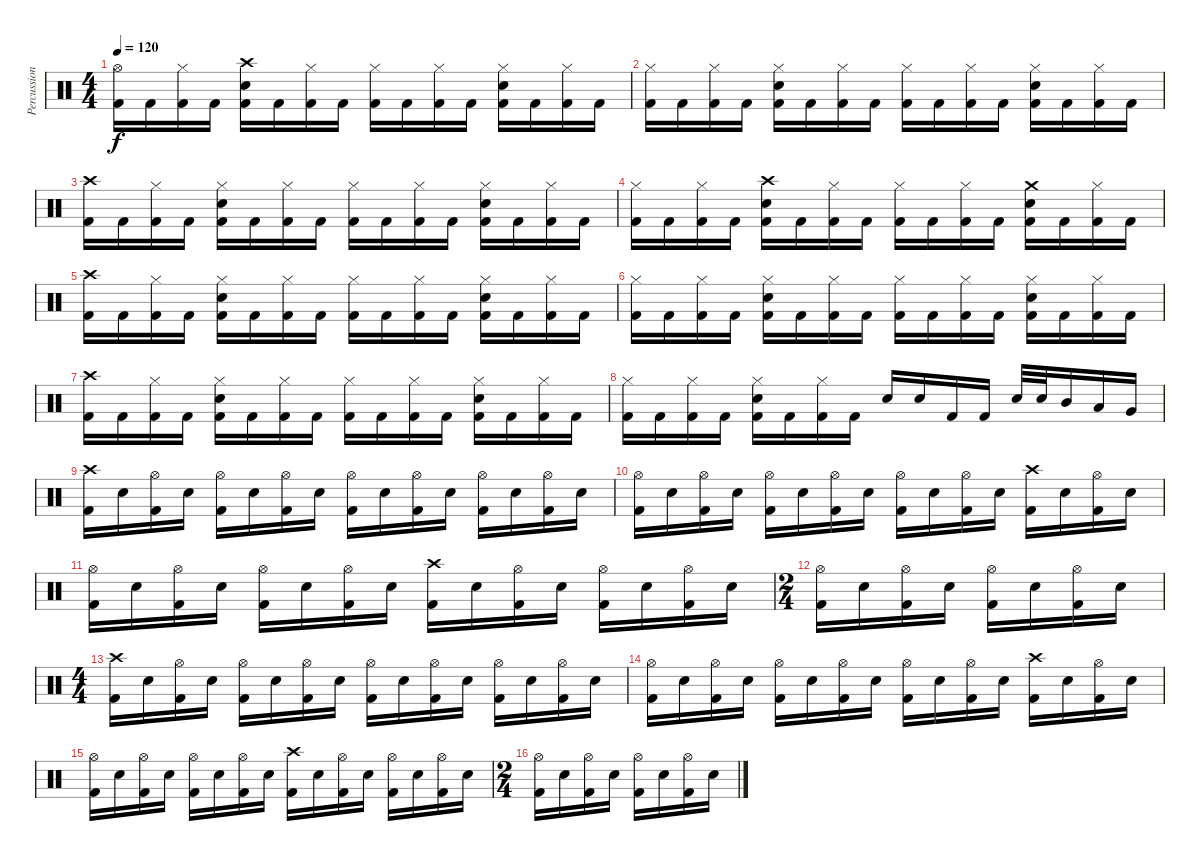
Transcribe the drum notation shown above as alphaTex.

\track ("Percussion" "Percussion") {instrument percussion}
\staff {score}
\articulation defaults
\ts (4 4)
\tempo 120
\clef neutral
\ks c
("Hi-Hat (open)" "Kick (hit) 2").16{dy f} "Kick (hit) 2".16 ("Hi-Hat (closed)" "Kick (hit) 2").16 "Kick (hit) 2".16 ("Crash high (hit)" "Snare (hit) 2" "Kick (hit) 2").16 "Kick (hit) 2".16 ("Hi-Hat (closed)" "Kick (hit) 2").16 "Kick (hit) 2".16 ("Hi-Hat (closed)" "Kick (hit) 2").16 "Kick (hit) 2".16 ("Hi-Hat (closed)" "Kick (hit) 2").16 "Kick (hit) 2".16 ("Hi-Hat (closed)" "Snare (hit) 2" "Kick (hit) 2").16 "Kick (hit) 2".16 ("Hi-Hat (closed)" "Kick (hit) 2").16 "Kick (hit) 2".16 |
("Hi-Hat (closed)" "Kick (hit) 2").16 "Kick (hit) 2".16 ("Hi-Hat (closed)" "Kick (hit) 2").16 "Kick (hit) 2".16 ("Hi-Hat (closed)" "Snare (hit) 2" "Kick (hit) 2").16 "Kick (hit) 2".16 ("Hi-Hat (closed)" "Kick (hit) 2").16 "Kick (hit) 2".16 ("Hi-Hat (closed)" "Kick (hit) 2").16 "Kick (hit) 2".16 ("Hi-Hat (closed)" "Kick (hit) 2").16 "Kick (hit) 2".16 ("Hi-Hat (closed)" "Snare (hit) 2" "Kick (hit) 2").16 "Kick (hit) 2".16 ("Hi-Hat (closed)" "Kick (hit) 2").16 "Kick (hit) 2".16 |
("Crash high (hit)" "Kick (hit) 2").16 "Kick (hit) 2".16 ("Hi-Hat (closed)" "Kick (hit) 2").16 "Kick (hit) 2".16 ("Hi-Hat (closed)" "Snare (hit) 2" "Kick (hit) 2").16 "Kick (hit) 2".16 ("Hi-Hat (closed)" "Kick (hit) 2").16 "Kick (hit) 2".16 ("Hi-Hat (closed)" "Kick (hit) 2").16 "Kick (hit) 2".16 ("Hi-Hat (closed)" "Kick (hit) 2").16 "Kick (hit) 2".16 ("Hi-Hat (closed)" "Snare (hit) 2" "Kick (hit) 2").16 "Kick (hit) 2".16 ("Hi-Hat (closed)" "Kick (hit) 2").16 "Kick (hit) 2".16 |
("Hi-Hat (closed)" "Kick (hit) 2").16 "Kick (hit) 2".16 ("Hi-Hat (closed)" "Kick (hit) 2").16 "Kick (hit) 2".16 ("Crash high (hit)" "Snare (hit) 2" "Kick (hit) 2").16 "Kick (hit) 2".16 ("Hi-Hat (closed)" "Kick (hit) 2").16 "Kick (hit) 2".16 ("Hi-Hat (closed)" "Kick (hit) 2").16 "Kick (hit) 2".16 ("Hi-Hat (closed)" "Kick (hit) 2").16 "Kick (hit) 2".16 ("Crash medium (hit)" "Snare (hit) 2" "Kick (hit) 2").16 "Kick (hit) 2".16 ("Hi-Hat (closed)" "Kick (hit) 2").16 "Kick (hit) 2".16 |
("Crash high (hit)" "Kick (hit) 2").16 "Kick (hit) 2".16 ("Hi-Hat (closed)" "Kick (hit) 2").16 "Kick (hit) 2".16 ("Hi-Hat (closed)" "Snare (hit) 2" "Kick (hit) 2").16 "Kick (hit) 2".16 ("Hi-Hat (closed)" "Kick (hit) 2").16 "Kick (hit) 2".16 ("Hi-Hat (closed)" "Kick (hit) 2").16 "Kick (hit) 2".16 ("Hi-Hat (closed)" "Kick (hit) 2").16 "Kick (hit) 2".16 ("Hi-Hat (closed)" "Snare (hit) 2" "Kick (hit) 2").16 "Kick (hit) 2".16 ("Hi-Hat (closed)" "Kick (hit) 2").16 "Kick (hit) 2".16 |
("Hi-Hat (closed)" "Kick (hit) 2").16 "Kick (hit) 2".16 ("Hi-Hat (closed)" "Kick (hit) 2").16 "Kick (hit) 2".16 ("Hi-Hat (closed)" "Snare (hit) 2" "Kick (hit) 2").16 "Kick (hit) 2".16 ("Hi-Hat (closed)" "Kick (hit) 2").16 "Kick (hit) 2".16 ("Hi-Hat (closed)" "Kick (hit) 2").16 "Kick (hit) 2".16 ("Hi-Hat (closed)" "Kick (hit) 2").16 "Kick (hit) 2".16 ("Hi-Hat (closed)" "Snare (hit) 2" "Kick (hit) 2").16 "Kick (hit) 2".16 ("Hi-Hat (closed)" "Kick (hit) 2").16 "Kick (hit) 2".16 |
("Crash high (hit)" "Kick (hit) 2").16 "Kick (hit) 2".16 ("Hi-Hat (closed)" "Kick (hit) 2").16 "Kick (hit) 2".16 ("Hi-Hat (closed)" "Snare (hit) 2" "Kick (hit) 2").16 "Kick (hit) 2".16 ("Hi-Hat (closed)" "Kick (hit) 2").16 "Kick (hit) 2".16 ("Hi-Hat (closed)" "Kick (hit) 2").16 "Kick (hit) 2".16 ("Hi-Hat (closed)" "Kick (hit) 2").16 "Kick (hit) 2".16 ("Hi-Hat (closed)" "Snare (hit) 2" "Kick (hit) 2").16 "Kick (hit) 2".16 ("Hi-Hat (closed)" "Kick (hit) 2").16 "Kick (hit) 2".16 |
("Hi-Hat (closed)" "Kick (hit) 2").16 "Kick (hit) 2".16 ("Hi-Hat (closed)" "Kick (hit) 2").16 "Kick (hit) 2".16 ("Hi-Hat (closed)" "Snare (hit) 2" "Kick (hit) 2").16 "Kick (hit) 2".16 ("Hi-Hat (closed)" "Kick (hit) 2").16 "Kick (hit) 2".16 "Snare (hit) 2".16 "Snare (hit) 2".16 "Kick (hit) 2".16 "Kick (hit) 2".16 "Snare (hit) 2".32 "Snare (hit) 2".32 "Mid Tom (hit)".16 "Low Tom (hit)".16 "Very Low Tom (hit)".16 |
("Crash high (hit)" "Kick (hit) 2").16 "Snare (hit) 2".16 ("Hi-Hat (open)" "Kick (hit) 2").16 "Snare (hit) 2".16 ("Hi-Hat (open)" "Kick (hit) 2").16 "Snare (hit) 2".16 ("Hi-Hat (open)" "Kick (hit) 2").16 "Snare (hit) 2".16 ("Hi-Hat (open)" "Kick (hit) 2").16 "Snare (hit) 2".16 ("Hi-Hat (open)" "Kick (hit) 2").16 "Snare (hit) 2".16 ("Hi-Hat (open)" "Kick (hit) 2").16 "Snare (hit) 2".16 ("Hi-Hat (open)" "Kick (hit) 2").16 "Snare (hit) 2".16 |
("Hi-Hat (open)" "Kick (hit) 2").16 "Snare (hit) 2".16 ("Hi-Hat (open)" "Kick (hit) 2").16 "Snare (hit) 2".16 ("Hi-Hat (open)" "Kick (hit) 2").16 "Snare (hit) 2".16 ("Hi-Hat (open)" "Kick (hit) 2").16 "Snare (hit) 2".16 ("Hi-Hat (open)" "Kick (hit) 2").16 "Snare (hit) 2".16 ("Hi-Hat (open)" "Kick (hit) 2").16 "Snare (hit) 2".16 ("Crash high (hit)" "Kick (hit) 2").16 "Snare (hit) 2".16 ("Hi-Hat (open)" "Kick (hit) 2").16 "Snare (hit) 2".16 |
("Hi-Hat (open)" "Kick (hit) 2").16 "Snare (hit) 2".16 ("Hi-Hat (open)" "Kick (hit) 2").16 "Snare (hit) 2".16 ("Hi-Hat (open)" "Kick (hit) 2").16 "Snare (hit) 2".16 ("Hi-Hat (open)" "Kick (hit) 2").16 "Snare (hit) 2".16 ("Crash high (hit)" "Kick (hit) 2").16 "Snare (hit) 2".16 ("Hi-Hat (open)" "Kick (hit) 2").16 "Snare (hit) 2".16 ("Hi-Hat (open)" "Kick (hit) 2").16 "Snare (hit) 2".16 ("Hi-Hat (open)" "Kick (hit) 2").16 "Snare (hit) 2".16 |
\ts (2 4)
("Hi-Hat (open)" "Kick (hit) 2").16 "Snare (hit) 2".16 ("Hi-Hat (open)" "Kick (hit) 2").16 "Snare (hit) 2".16 ("Hi-Hat (open)" "Kick (hit) 2").16 "Snare (hit) 2".16 ("Hi-Hat (open)" "Kick (hit) 2").16 "Snare (hit) 2".16 |
\ts (4 4)
("Crash high (hit)" "Kick (hit) 2").16 "Snare (hit) 2".16 ("Hi-Hat (open)" "Kick (hit) 2").16 "Snare (hit) 2".16 ("Hi-Hat (open)" "Kick (hit) 2").16 "Snare (hit) 2".16 ("Hi-Hat (open)" "Kick (hit) 2").16 "Snare (hit) 2".16 ("Hi-Hat (open)" "Kick (hit) 2").16 "Snare (hit) 2".16 ("Hi-Hat (open)" "Kick (hit) 2").16 "Snare (hit) 2".16 ("Hi-Hat (open)" "Kick (hit) 2").16 "Snare (hit) 2".16 ("Hi-Hat (open)" "Kick (hit) 2").16 "Snare (hit) 2".16 |
("Hi-Hat (open)" "Kick (hit) 2").16 "Snare (hit) 2".16 ("Hi-Hat (open)" "Kick (hit) 2").16 "Snare (hit) 2".16 ("Hi-Hat (open)" "Kick (hit) 2").16 "Snare (hit) 2".16 ("Hi-Hat (open)" "Kick (hit) 2").16 "Snare (hit) 2".16 ("Hi-Hat (open)" "Kick (hit) 2").16 "Snare (hit) 2".16 ("Hi-Hat (open)" "Kick (hit) 2").16 "Snare (hit) 2".16 ("Crash high (hit)" "Kick (hit) 2").16 "Snare (hit) 2".16 ("Hi-Hat (open)" "Kick (hit) 2").16 "Snare (hit) 2".16 |
("Hi-Hat (open)" "Kick (hit) 2").16 "Snare (hit) 2".16 ("Hi-Hat (open)" "Kick (hit) 2").16 "Snare (hit) 2".16 ("Hi-Hat (open)" "Kick (hit) 2").16 "Snare (hit) 2".16 ("Hi-Hat (open)" "Kick (hit) 2").16 "Snare (hit) 2".16 ("Crash high (hit)" "Kick (hit) 2").16 "Snare (hit) 2".16 ("Hi-Hat (open)" "Kick (hit) 2").16 "Snare (hit) 2".16 ("Hi-Hat (open)" "Kick (hit) 2").16 "Snare (hit) 2".16 ("Hi-Hat (open)" "Kick (hit) 2").16 "Snare (hit) 2".16 |
\ts (2 4)
("Hi-Hat (open)" "Kick (hit) 2").16 "Snare (hit) 2".16 ("Hi-Hat (open)" "Kick (hit) 2").16 "Snare (hit) 2".16 ("Hi-Hat (open)" "Kick (hit) 2").16 "Snare (hit) 2".16 ("Hi-Hat (open)" "Kick (hit) 2").16 "Snare (hit) 2".16
